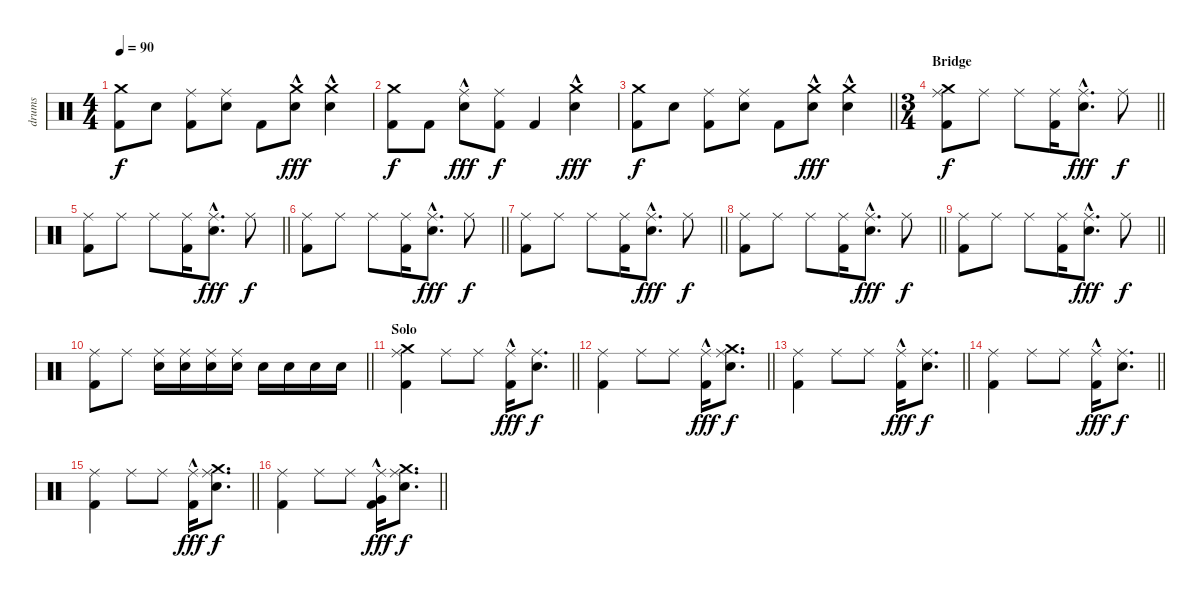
\track ("drums" "drums") {instrument percussion}
\staff {score}
\articulation defaults
\ts (4 4)
\tempo 90
\clef neutral
\ks c
("Kick (hit) 2" "Crash medium (hit)").8{dy f} "Electric Snare (hit)".8 ("Kick (hit) 2" "Ride (middle)").8 ("Electric Snare (hit)" "Ride (middle)").8 "Kick (hit) 2".8 ("Electric Snare (hit)"{hac} "Crash medium (hit)"{hac}).8{dy fff} ("Electric Snare (hit)"{hac} "Crash medium (hit)"{hac}).4 |
("Kick (hit) 2" "Crash medium (hit)").8{dy f} "Kick (hit) 2".8 ("Electric Snare (hit)"{hac} "Ride (middle)").8{dy fff} ("Kick (hit) 2" "Ride (middle)").8{dy f} "Kick (hit) 2".4 ("Electric Snare (hit)"{hac} "Crash medium (hit)"{hac}).4{dy fff} |
\barLineRight lightlight
("Kick (hit) 2" "Crash medium (hit)").8{dy f} "Electric Snare (hit)".8 ("Kick (hit) 2" "Ride (middle)").8 ("Electric Snare (hit)" "Ride (middle)").8 "Kick (hit) 2".8 ("Electric Snare (hit)"{hac} "Crash medium (hit)"{hac}).8{dy fff} ("Electric Snare (hit)"{hac} "Crash medium (hit)"{hac}).4 |
\ts (3 4)
\section ("" "Bridge")
\barLineRight lightlight
("Crash medium (hit)" "Kick (hit) 2" "Ride (middle)").8{dy f} "Ride (middle)".8 "Ride (middle)".8 ("Kick (hit) 2" "Ride (middle)").16 ("Electric Snare (hit)"{hac} "Ride (middle)").8{d dy fff} "Ride (middle)".8{dy f} |
\barLineRight lightlight
("Kick (hit) 2" "Ride (middle)").8 "Ride (middle)".8 "Ride (middle)".8 ("Kick (hit) 2" "Ride (middle)").16 ("Electric Snare (hit)"{hac} "Ride (middle)").8{d dy fff} "Ride (middle)".8{dy f} |
\barLineRight lightlight
("Kick (hit) 2" "Ride (middle)").8 "Ride (middle)".8 "Ride (middle)".8 ("Kick (hit) 2" "Ride (middle)").16 ("Electric Snare (hit)"{hac} "Ride (middle)").8{d dy fff} "Ride (middle)".8{dy f} |
\barLineRight lightlight
("Kick (hit) 2" "Ride (middle)").8 "Ride (middle)".8 "Ride (middle)".8 ("Kick (hit) 2" "Ride (middle)").16 ("Electric Snare (hit)"{hac} "Ride (middle)").8{d dy fff} "Ride (middle)".8{dy f} |
\barLineRight lightlight
("Kick (hit) 2" "Ride (middle)").8 "Ride (middle)".8 "Ride (middle)".8 ("Kick (hit) 2" "Ride (middle)").16 ("Electric Snare (hit)"{hac} "Ride (middle)").8{d dy fff} "Ride (middle)".8{dy f} |
\barLineRight lightlight
("Kick (hit) 2" "Ride (middle)").8 "Ride (middle)".8 "Ride (middle)".8 ("Kick (hit) 2" "Ride (middle)").16 ("Electric Snare (hit)"{hac} "Ride (middle)").8{d dy fff} "Ride (middle)".8{dy f} |
\barLineRight lightlight
("Kick (hit) 2" "Ride (middle)").8 "Ride (middle)".8 ("Electric Snare (hit)" "Ride (middle)").16 ("Electric Snare (hit)" "Ride (middle)").16 ("Electric Snare (hit)" "Ride (middle)").16 ("Electric Snare (hit)" "Ride (middle)").16 "Electric Snare (hit)".16 "Electric Snare (hit)".16 "Electric Snare (hit)".16 "Electric Snare (hit)".16 |
\section ("" "Solo")
\barLineRight lightlight
("Kick (hit) 2" "Ride (middle)" "Crash medium (hit)").4 "Ride (middle)".8 "Ride (middle)".8 ("Kick (hit) 2"{hac} "Ride (middle)").16{dy fff} ("Electric Snare (hit)" "Ride (middle)").8{d dy f} |
\barLineRight lightlight
("Kick (hit) 2" "Ride (middle)").4 "Ride (middle)".8 "Ride (middle)".8 ("Kick (hit) 2"{hac} "Ride (middle)").16{dy fff} ("Electric Snare (hit)" "Ride (middle)" "Crash medium (hit)").8{d dy f} |
\barLineRight lightlight
("Kick (hit) 2" "Ride (middle)").4 "Ride (middle)".8 "Ride (middle)".8 ("Kick (hit) 2"{hac} "Ride (middle)").16{dy fff} ("Electric Snare (hit)" "Ride (middle)").8{d dy f} |
\barLineRight lightlight
("Kick (hit) 2" "Ride (middle)").4 "Ride (middle)".8 "Ride (middle)".8 ("Kick (hit) 2"{hac} "Ride (middle)").16{dy fff} ("Electric Snare (hit)" "Ride (middle)").8{d dy f} |
\barLineRight lightlight
("Kick (hit) 2" "Ride (middle)").4 "Ride (middle)".8 "Ride (middle)".8 ("Kick (hit) 2"{hac} "Ride (middle)").16{dy fff} ("Electric Snare (hit)" "Ride (middle)" "Crash medium (hit)").8{d dy f} |
\barLineRight lightlight
("Kick (hit) 2" "Ride (middle)").4 "Ride (middle)".8 "Ride (middle)".8 ("Kick (hit) 2"{hac} "Ride (middle)" "Very Low Tom (hit)").16{dy fff} ("Electric Snare (hit)" "Ride (middle)" "Crash medium (hit)").8{d dy f}
